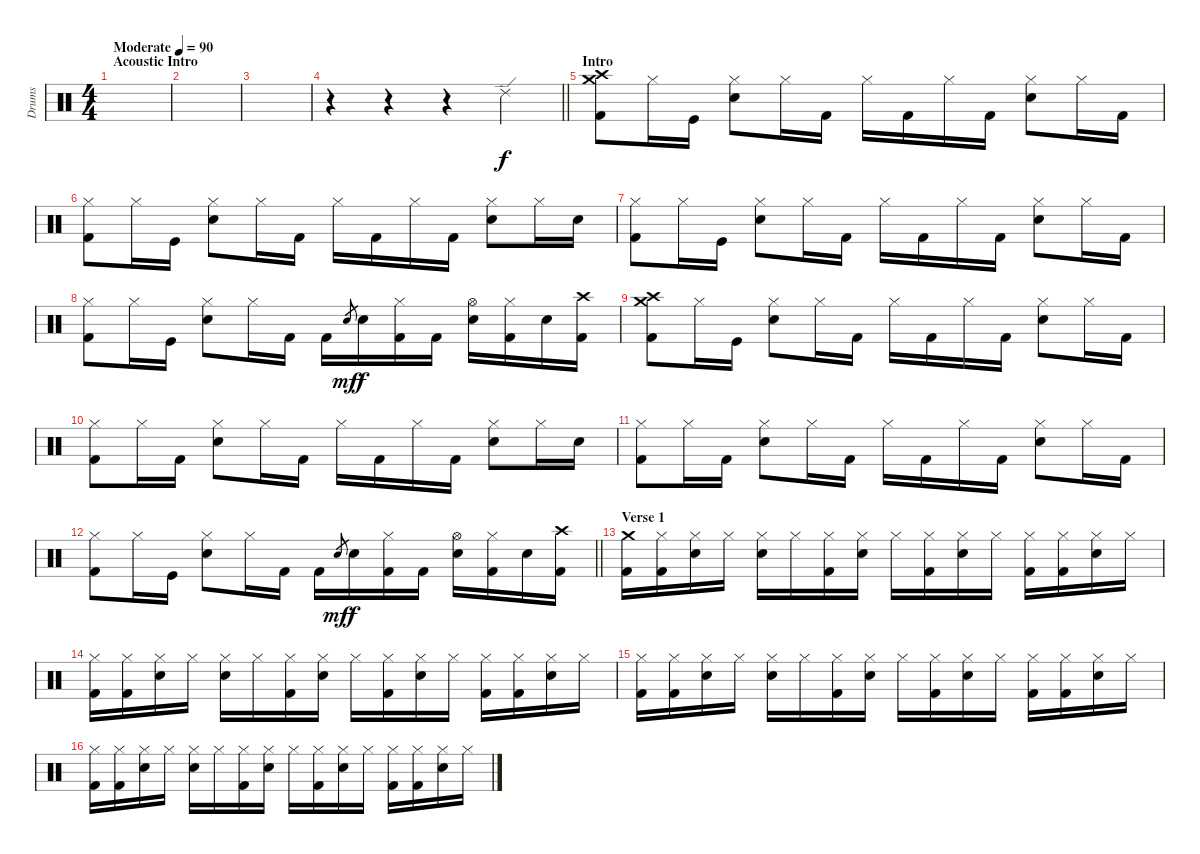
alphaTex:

\track ("Drums" "Drums") {instrument percussion}
\staff {score}
\articulation defaults
\ts (4 4)
\section ("" "Acoustic Intro")
\tempo (90 "Moderate")
\clef neutral
\ks c
|
|
|
\barLineRight lightlight
r.4 r.4 r.4 "Ride (edge) 2".4 |
\section ("" "Intro")
("Crash medium (hit)" "Crash high (hit)" "Kick (hit) 2").8 "Hi-Hat (closed)".16 "Kick (hit)".16 ("Hi-Hat (closed)" "Snare (hit) 2").8 "Hi-Hat (closed)".16 "Kick (hit) 2".16 "Hi-Hat (closed)".16 "Kick (hit) 2".16 "Hi-Hat (closed)".16 "Kick (hit) 2".16 ("Hi-Hat (closed)" "Snare (hit) 2").8 "Hi-Hat (closed)".16 "Kick (hit) 2".16 |
("Hi-Hat (closed)" "Kick (hit) 2").8 "Hi-Hat (closed)".16 "Kick (hit)".16 ("Hi-Hat (closed)" "Snare (hit) 2").8 "Hi-Hat (closed)".16 "Kick (hit) 2".16 "Hi-Hat (closed)".16 "Kick (hit) 2".16 "Hi-Hat (closed)".16 "Kick (hit) 2".16 ("Hi-Hat (closed)" "Snare (hit) 2").8 "Hi-Hat (closed)".16 "Snare (hit) 2".16 |
("Hi-Hat (closed)" "Kick (hit) 2").8 "Hi-Hat (closed)".16 "Kick (hit)".16 ("Hi-Hat (closed)" "Snare (hit) 2").8 "Hi-Hat (closed)".16 "Kick (hit) 2".16 "Hi-Hat (closed)".16 "Kick (hit) 2".16 "Hi-Hat (closed)".16 "Kick (hit) 2".16 ("Hi-Hat (closed)" "Snare (hit) 2").8 "Hi-Hat (closed)".16 "Kick (hit) 2".16 |
("Hi-Hat (closed)" "Kick (hit) 2").8 "Hi-Hat (closed)".16 "Kick (hit)".16 ("Hi-Hat (closed)" "Snare (hit) 2").8 "Hi-Hat (closed)".16 "Kick (hit) 2".16 "Kick (hit) 2".16 "Snare (hit) 2"{h}.8{gr dy mf} "Snare (hit) 2".16{dy f} ("Hi-Hat (closed)" "Kick (hit) 2").16 "Kick (hit) 2".16 ("Hi-Hat (open)" "Snare (hit) 2").16 ("Hi-Hat (closed)" "Kick (hit) 2").16 "Snare (hit) 2".16 ("Crash high (hit)" "Kick (hit) 2").16 |
("Crash medium (hit)" "Crash high (hit)" "Kick (hit) 2").8 "Hi-Hat (closed)".16 "Kick (hit)".16 ("Hi-Hat (closed)" "Snare (hit) 2").8 "Hi-Hat (closed)".16 "Kick (hit) 2".16 "Hi-Hat (closed)".16 "Kick (hit) 2".16 "Hi-Hat (closed)".16 "Kick (hit) 2".16 ("Hi-Hat (closed)" "Snare (hit) 2").8 "Hi-Hat (closed)".16 "Kick (hit) 2".16 |
("Hi-Hat (closed)" "Kick (hit) 2").8 "Hi-Hat (closed)".16 "Kick (hit) 2".16 ("Hi-Hat (closed)" "Snare (hit) 2").8 "Hi-Hat (closed)".16 "Kick (hit) 2".16 "Hi-Hat (closed)".16 "Kick (hit) 2".16 "Hi-Hat (closed)".16 "Kick (hit) 2".16 ("Hi-Hat (closed)" "Snare (hit) 2").8 "Hi-Hat (closed)".16 "Snare (hit) 2".16 |
("Hi-Hat (closed)" "Kick (hit) 2").8 "Hi-Hat (closed)".16 "Kick (hit) 2".16 ("Hi-Hat (closed)" "Snare (hit) 2").8 "Hi-Hat (closed)".16 "Kick (hit) 2".16 "Hi-Hat (closed)".16 "Kick (hit) 2".16 "Hi-Hat (closed)".16 "Kick (hit) 2".16 ("Hi-Hat (closed)" "Snare (hit) 2").8 "Hi-Hat (closed)".16 "Kick (hit) 2".16 |
\barLineRight lightlight
("Hi-Hat (closed)" "Kick (hit) 2").8 "Hi-Hat (closed)".16 "Kick (hit)".16 ("Hi-Hat (closed)" "Snare (hit) 2").8 "Hi-Hat (closed)".16 "Kick (hit) 2".16 "Kick (hit) 2".16 "Snare (hit) 2"{h}.8{gr dy mf} "Snare (hit) 2".16{dy f} ("Hi-Hat (closed)" "Kick (hit) 2").16 "Kick (hit) 2".16 ("Hi-Hat (open)" "Snare (hit) 2").16 ("Hi-Hat (closed)" "Kick (hit) 2").16 "Snare (hit) 2".16 ("Crash high (hit)" "Kick (hit) 2").16 |
\section ("" "Verse 1")
("Crash medium (hit)" "Kick (hit) 2").16 ("Hi-Hat (closed)" "Kick (hit) 2").16 ("Hi-Hat (closed)" "Snare (hit) 2").16 "Hi-Hat (closed)".16 ("Hi-Hat (closed)" "Snare (hit) 2").16 "Hi-Hat (closed)".16 ("Hi-Hat (closed)" "Kick (hit) 2").16 ("Hi-Hat (closed)" "Snare (hit) 2").16 "Hi-Hat (closed)".16 ("Hi-Hat (closed)" "Kick (hit) 2").16 ("Hi-Hat (closed)" "Snare (hit) 2").16 "Hi-Hat (closed)".16 ("Hi-Hat (closed)" "Kick (hit) 2").16 ("Hi-Hat (closed)" "Kick (hit) 2").16 ("Hi-Hat (closed)" "Snare (hit) 2").16 "Hi-Hat (closed)".16 |
("Hi-Hat (closed)" "Kick (hit) 2").16 ("Hi-Hat (closed)" "Kick (hit) 2").16 ("Hi-Hat (closed)" "Snare (hit) 2").16 "Hi-Hat (closed)".16 ("Hi-Hat (closed)" "Snare (hit) 2").16 "Hi-Hat (closed)".16 ("Hi-Hat (closed)" "Kick (hit) 2").16 ("Hi-Hat (closed)" "Snare (hit) 2").16 "Hi-Hat (closed)".16 ("Hi-Hat (closed)" "Kick (hit) 2").16 ("Hi-Hat (closed)" "Snare (hit) 2").16 "Hi-Hat (closed)".16 ("Hi-Hat (closed)" "Kick (hit) 2").16 ("Hi-Hat (closed)" "Kick (hit) 2").16 ("Hi-Hat (closed)" "Snare (hit) 2").16 "Hi-Hat (closed)".16 |
("Hi-Hat (closed)" "Kick (hit) 2").16 ("Hi-Hat (closed)" "Kick (hit) 2").16 ("Hi-Hat (closed)" "Snare (hit) 2").16 "Hi-Hat (closed)".16 ("Hi-Hat (closed)" "Snare (hit) 2").16 "Hi-Hat (closed)".16 ("Hi-Hat (closed)" "Kick (hit) 2").16 ("Hi-Hat (closed)" "Snare (hit) 2").16 "Hi-Hat (closed)".16 ("Hi-Hat (closed)" "Kick (hit) 2").16 ("Hi-Hat (closed)" "Snare (hit) 2").16 "Hi-Hat (closed)".16 ("Hi-Hat (closed)" "Kick (hit) 2").16 ("Hi-Hat (closed)" "Kick (hit) 2").16 ("Hi-Hat (closed)" "Snare (hit) 2").16 "Hi-Hat (closed)".16 |
("Hi-Hat (closed)" "Kick (hit) 2").16 ("Hi-Hat (closed)" "Kick (hit) 2").16 ("Hi-Hat (closed)" "Snare (hit) 2").16 "Hi-Hat (closed)".16 ("Hi-Hat (closed)" "Snare (hit) 2").16 "Hi-Hat (closed)".16 ("Hi-Hat (closed)" "Kick (hit) 2").16 ("Hi-Hat (closed)" "Snare (hit) 2").16 "Hi-Hat (closed)".16 ("Hi-Hat (closed)" "Kick (hit) 2").16 ("Hi-Hat (closed)" "Snare (hit) 2").16 "Hi-Hat (closed)".16 ("Hi-Hat (closed)" "Kick (hit) 2").16 ("Hi-Hat (closed)" "Kick (hit) 2").16 ("Hi-Hat (closed)" "Snare (hit) 2").16 "Hi-Hat (closed)".16
